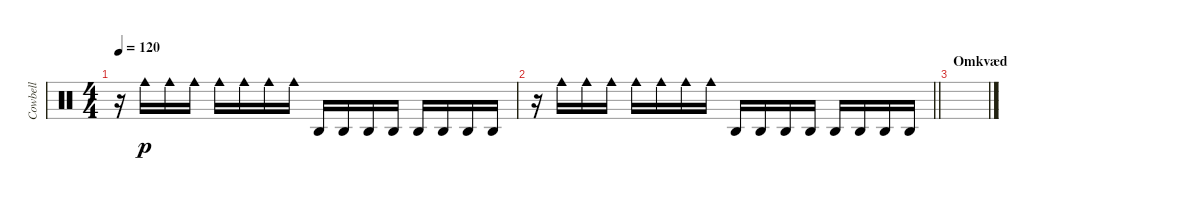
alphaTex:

\track ("Cowbell" "Cowbell") {instrument percussion}
\staff {score}
\articulation defaults
\ts (4 4)
\tempo 120
\clef neutral
\ks c
r.16{dy f} "Cowbell medium (hit)".16{dy p} "Cowbell medium (hit)".16 "Cowbell medium (hit)".16 "Cowbell medium (hit)".16 "Cowbell medium (hit)".16 "Cowbell medium (hit)".16 "Cowbell medium (hit)".16 "Agogo high (hit)".16 "Agogo high (hit)".16 "Agogo high (hit)".16 "Agogo high (hit)".16 "Agogo high (hit)".16 "Agogo high (hit)".16 "Agogo high (hit)".16 "Agogo high (hit)".16 |
\barLineRight lightlight
r.16 "Cowbell medium (hit)".16 "Cowbell medium (hit)".16 "Cowbell medium (hit)".16 "Cowbell medium (hit)".16 "Cowbell medium (hit)".16 "Cowbell medium (hit)".16 "Cowbell medium (hit)".16 "Agogo high (hit)".16 "Agogo high (hit)".16 "Agogo high (hit)".16 "Agogo high (hit)".16 "Agogo high (hit)".16 "Agogo high (hit)".16 "Agogo high (hit)".16 "Agogo high (hit)".16 |
\section ("" "Omkvæd")
